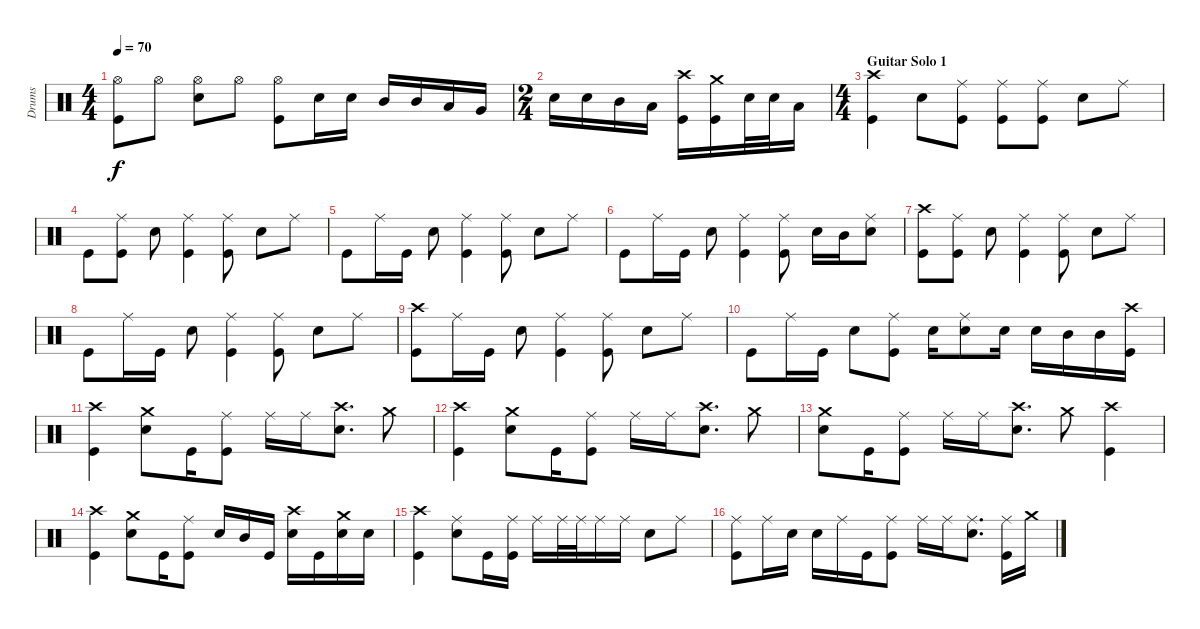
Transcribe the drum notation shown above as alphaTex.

\track ("Drums" "Drums") {instrument percussion}
\staff {score}
\articulation defaults
\ts (4 4)
\tempo 70
\clef neutral
\ks c
("Hi-Hat (open)" "Kick (hit)").8{dy f} "Hi-Hat (open)".8 ("Hi-Hat (open)" "Snare (hit) 2").8 "Hi-Hat (open)".8 ("Hi-Hat (open)" "Kick (hit)").8 "Snare (hit) 2".16 "Snare (hit) 2".16 "Mid Tom (hit)".16 "Mid Tom (hit)".16 "Low Tom (hit)".16 "Very Low Tom (hit)".16 |
\ts (2 4)
"Snare (hit) 2".16 "Snare (hit) 2".16 "Mid Tom (hit)".16 "Low Tom (hit)".16 ("Crash high (hit)" "Kick (hit)").16 ("Crash medium (hit)" "Kick (hit)").16 "Snare (hit) 2".32 "Snare (hit) 2".32 "Low Tom (hit)".16 |
\ts (4 4)
\section ("" "Guitar Solo 1")
("Crash high (hit)" "Kick (hit)").4 "Snare (hit) 2".8 ("Ride (middle)" "Kick (hit)").8 ("Ride (middle)" "Kick (hit)").8 ("Ride (middle)" "Kick (hit)").8 "Snare (hit) 2".8 "Ride (middle)".8 |
"Kick (hit)".8 ("Ride (middle)" "Kick (hit)").8 "Snare (hit) 2".8 ("Ride (middle)" "Kick (hit)").4 ("Ride (middle)" "Kick (hit)").8 "Snare (hit) 2".8 "Ride (middle)".8 |
"Kick (hit)".8 "Ride (middle)".16 "Kick (hit)".16 "Snare (hit) 2".8 ("Ride (middle)" "Kick (hit)").4 ("Ride (middle)" "Kick (hit)").8 "Snare (hit) 2".8 "Ride (middle)".8 |
"Kick (hit)".8 "Ride (middle)".16 "Kick (hit)".16 "Snare (hit) 2".8 ("Ride (middle)" "Kick (hit)").4 ("Ride (middle)" "Kick (hit)").8 "Snare (hit) 2".16 "Mid Tom (hit)".16 ("Ride (middle)" "Snare (hit) 2").8 |
("Crash high (hit)" "Kick (hit)").8 ("Ride (middle)" "Kick (hit)").8 "Snare (hit) 2".8 ("Ride (middle)" "Kick (hit)").4 ("Ride (middle)" "Kick (hit)").8 "Snare (hit) 2".8 "Ride (middle)".8 |
"Kick (hit)".8 "Ride (middle)".16 "Kick (hit)".16 "Snare (hit) 2".8 ("Ride (middle)" "Kick (hit)").4 ("Ride (middle)" "Kick (hit)").8 "Snare (hit) 2".8 "Ride (middle)".8 |
("Crash high (hit)" "Kick (hit)").8 "Ride (middle)".16 "Kick (hit)".16 "Snare (hit) 2".8 ("Ride (middle)" "Kick (hit)").4 ("Ride (middle)" "Kick (hit)").8 "Snare (hit) 2".8 "Ride (middle)".8 |
"Kick (hit)".8 "Ride (middle)".16 "Kick (hit)".16 "Snare (hit) 2".8 ("Ride (middle)" "Kick (hit)").8 "Snare (hit) 2".16 ("Ride (middle)" "Snare (hit) 2").8 "Snare (hit) 2".16 "Snare (hit) 2".16 "Mid Tom (hit)".16 "Mid Tom (hit)".16 ("Crash high (hit)" "Kick (hit)").16 |
("Crash high (hit)" "Kick (hit)").4 ("Crash medium (hit)" "Snare (hit) 2").8 "Kick (hit)".16 ("Ride (middle)" "Kick (hit)").8 "Ride (middle)".16 "Ride (middle)".16 ("Crash high (hit)" "Snare (hit) 2").8{d} "Crash medium (hit)".8 |
("Crash high (hit)" "Kick (hit)").4 ("Crash medium (hit)" "Snare (hit) 2").8 "Kick (hit)".16 ("Ride (middle)" "Kick (hit)").8 "Ride (middle)".16 "Ride (middle)".16 ("Crash high (hit)" "Snare (hit) 2").8{d} "Crash medium (hit)".8 |
("Crash medium (hit)" "Snare (hit) 2").8 "Kick (hit)".16 ("Ride (middle)" "Kick (hit)").8 "Ride (middle)".16 "Ride (middle)".16 ("Crash high (hit)" "Snare (hit) 2").8{d} "Crash medium (hit)".8 ("Crash high (hit)" "Kick (hit)").4 |
("Crash high (hit)" "Kick (hit)").4 ("Crash medium (hit)" "Snare (hit) 2").8 "Kick (hit)".16 ("Ride (middle)" "Kick (hit)").8 "Snare (hit) 2".16 "Mid Tom (hit)".16 "Kick (hit)".16 ("Crash high (hit)" "Snare (hit) 2").16 "Kick (hit)".16 ("Crash medium (hit)" "Snare (hit) 2").16 "Snare (hit) 2".16 |
("Crash high (hit)" "Kick (hit)").4 ("Ride (middle)" "Snare (hit) 2").8 "Kick (hit)".16 ("Ride (middle)" "Kick (hit)").16 "Ride (middle)".16 "Ride (middle)".32 "Ride (middle)".32 "Ride (middle)".16 "Ride (middle)".16 "Snare (hit) 2".8 "Ride (middle)".8 |
("Ride (middle)" "Kick (hit)").8 "Ride (middle)".16 "Snare (hit) 2".16 "Snare (hit) 2".16 "Ride (middle)".16 "Kick (hit)".16 ("Ride (middle)" "Kick (hit)").8 "Ride (middle)".16 "Ride (middle)".16 ("Ride (middle)" "Snare (hit) 2").8{d} ("Ride (middle)" "Kick (hit)").16 "Crash medium (hit)".16
